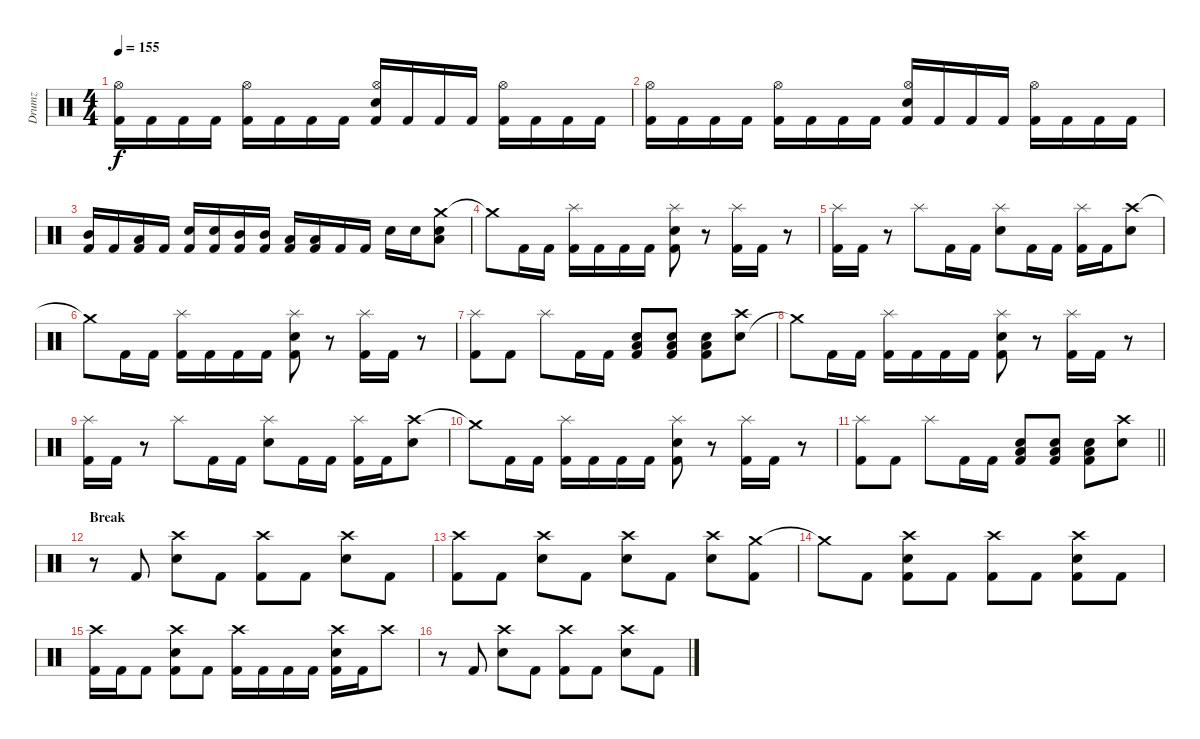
\track ("Drumz" "Drumz") {instrument percussion}
\staff {score}
\articulation defaults
\ts (4 4)
\tempo 155
\clef neutral
\ks c
("Kick (hit) 2" "Hi-Hat (open)").16{dy f} "Kick (hit) 2".16 "Kick (hit) 2".16 "Kick (hit) 2".16 ("Kick (hit) 2" "Hi-Hat (open)").16 "Kick (hit) 2".16 "Kick (hit) 2".16 "Kick (hit) 2".16 ("Kick (hit) 2" "Hi-Hat (open)" "Electric Snare (hit)").16 "Kick (hit) 2".16 "Kick (hit) 2".16 "Kick (hit) 2".16 ("Kick (hit) 2" "Hi-Hat (open)").16 "Kick (hit) 2".16 "Kick (hit) 2".16 "Kick (hit) 2".16 |
("Kick (hit) 2" "Hi-Hat (open)").16 "Kick (hit) 2".16 "Kick (hit) 2".16 "Kick (hit) 2".16 ("Kick (hit) 2" "Hi-Hat (open)").16 "Kick (hit) 2".16 "Kick (hit) 2".16 "Kick (hit) 2".16 ("Kick (hit) 2" "Hi-Hat (open)" "Electric Snare (hit)").16 "Kick (hit) 2".16 "Kick (hit) 2".16 "Kick (hit) 2".16 ("Kick (hit) 2" "Hi-Hat (open)").16 "Kick (hit) 2".16 "Kick (hit) 2".16 "Kick (hit) 2".16 |
("Mid Tom (hit)" "Kick (hit) 2").16 "Kick (hit) 2".16 ("Low Tom (hit)" "Kick (hit) 2").16 "Kick (hit) 2".16 ("Electric Snare (hit)" "Kick (hit) 2").16 ("Electric Snare (hit)" "Kick (hit) 2").16 ("Mid Tom (hit)" "Kick (hit) 2").16 ("Mid Tom (hit)" "Kick (hit) 2").16 ("Low Tom (hit)" "Kick (hit) 2").16 ("Low Tom (hit)" "Kick (hit) 2").16 "Kick (hit) 2".16 "Kick (hit) 2".16 "Electric Snare (hit)".16 "Electric Snare (hit)".16 ("Crash medium (hit)" "Electric Snare (hit)" "Low Floor Tom (hit)").8 |
"Crash medium (hit)"{t}.8 "Kick (hit) 2".16 "Kick (hit) 2".16 ("Kick (hit) 2" "Splash (hit)").16 "Kick (hit) 2".16 "Kick (hit) 2".16 "Kick (hit) 2".16 ("Kick (hit) 2" "Electric Snare (hit)" "Splash (hit)").8 r.8 ("Kick (hit) 2" "Splash (hit)").16 "Kick (hit) 2".16 r.8 |
("Kick (hit) 2" "Splash (hit)").16 "Kick (hit) 2".16 r.8 "Splash (hit)".8 "Kick (hit) 2".16 "Kick (hit) 2".16 ("Splash (hit)" "Electric Snare (hit)").8 "Kick (hit) 2".16 "Kick (hit) 2".16 ("Kick (hit) 2" "Splash (hit)").16 "Kick (hit) 2".16 ("Crash high (hit)" "Electric Snare (hit)").8 |
"Crash medium (hit)"{t}.8 "Kick (hit) 2".16 "Kick (hit) 2".16 ("Kick (hit) 2" "Splash (hit)").16 "Kick (hit) 2".16 "Kick (hit) 2".16 "Kick (hit) 2".16 ("Kick (hit) 2" "Electric Snare (hit)" "Splash (hit)").8 r.8 ("Kick (hit) 2" "Splash (hit)").16 "Kick (hit) 2".16 r.8 |
("Kick (hit) 2" "Splash (hit)").8 "Kick (hit) 2".8 "Splash (hit)".8 "Kick (hit) 2".16 "Kick (hit) 2".16 ("Electric Snare (hit)" "Kick (hit) 2" "Low Floor Tom (hit)").8 ("Electric Snare (hit)" "Kick (hit) 2" "Low Floor Tom (hit)").8 ("Electric Snare (hit)" "Kick (hit) 2" "Low Floor Tom (hit)").8 ("Electric Snare (hit)" "Crash high (hit)").8 |
"Crash medium (hit)"{t}.8 "Kick (hit) 2".16 "Kick (hit) 2".16 ("Kick (hit) 2" "Splash (hit)").16 "Kick (hit) 2".16 "Kick (hit) 2".16 "Kick (hit) 2".16 ("Kick (hit) 2" "Electric Snare (hit)" "Splash (hit)").8 r.8 ("Kick (hit) 2" "Splash (hit)").16 "Kick (hit) 2".16 r.8 |
("Kick (hit) 2" "Splash (hit)").16 "Kick (hit) 2".16 r.8 "Splash (hit)".8 "Kick (hit) 2".16 "Kick (hit) 2".16 ("Splash (hit)" "Electric Snare (hit)").8 "Kick (hit) 2".16 "Kick (hit) 2".16 ("Kick (hit) 2" "Splash (hit)").16 "Kick (hit) 2".16 ("Crash high (hit)" "Electric Snare (hit)").8 |
"Crash medium (hit)"{t}.8 "Kick (hit) 2".16 "Kick (hit) 2".16 ("Kick (hit) 2" "Splash (hit)").16 "Kick (hit) 2".16 "Kick (hit) 2".16 "Kick (hit) 2".16 ("Kick (hit) 2" "Electric Snare (hit)" "Splash (hit)").8 r.8 ("Kick (hit) 2" "Splash (hit)").16 "Kick (hit) 2".16 r.8 |
\barLineRight lightlight
("Kick (hit) 2" "Splash (hit)").8 "Kick (hit) 2".8 "Splash (hit)".8 "Kick (hit) 2".16 "Kick (hit) 2".16 ("Electric Snare (hit)" "Kick (hit) 2" "Low Floor Tom (hit)").8 ("Electric Snare (hit)" "Kick (hit) 2" "Low Floor Tom (hit)").8 ("Electric Snare (hit)" "Kick (hit) 2" "Low Floor Tom (hit)").8 ("Electric Snare (hit)" "Crash high (hit)").8 |
\section ("" "Break")
r.8 "Kick (hit) 2".8 ("Electric Snare (hit)" "Crash high (hit)").8 "Kick (hit) 2".8 ("Kick (hit) 2" "Crash high (hit)").8 "Kick (hit) 2".8 ("Electric Snare (hit)" "Crash high (hit)").8 "Kick (hit) 2".8 |
("Kick (hit) 2" "Crash high (hit)").8 "Kick (hit) 2".8 ("Electric Snare (hit)" "Crash high (hit)").8 "Kick (hit) 2".8 ("Electric Snare (hit)" "Crash high (hit)").8 "Kick (hit) 2".8 ("Electric Snare (hit)" "Crash high (hit)").8 ("Crash medium (hit)" "Kick (hit) 2").8 |
"Crash medium (hit)"{t}.8 "Kick (hit) 2".8 ("Kick (hit) 2" "Crash high (hit)" "Electric Snare (hit)").8 "Kick (hit) 2".8 ("Kick (hit) 2" "Crash high (hit)").8 "Kick (hit) 2".8 ("Kick (hit) 2" "Crash high (hit)" "Electric Snare (hit)").8 "Kick (hit) 2".8 |
("Kick (hit) 2" "Crash high (hit)").16 "Kick (hit) 2".16 "Kick (hit) 2".8 ("Kick (hit) 2" "Crash high (hit)" "Electric Snare (hit)").8 "Kick (hit) 2".8 ("Kick (hit) 2" "Crash high (hit)").16 "Kick (hit) 2".16 "Kick (hit) 2".16 "Kick (hit) 2".16 ("Kick (hit) 2" "Crash high (hit)" "Electric Snare (hit)").16 "Kick (hit) 2".16 "Crash high (hit)".8 |
r.8 "Kick (hit) 2".8 ("Electric Snare (hit)" "Crash high (hit)").8 "Kick (hit) 2".8 ("Kick (hit) 2" "Crash high (hit)").8 "Kick (hit) 2".8 ("Electric Snare (hit)" "Crash high (hit)").8 "Kick (hit) 2".8
